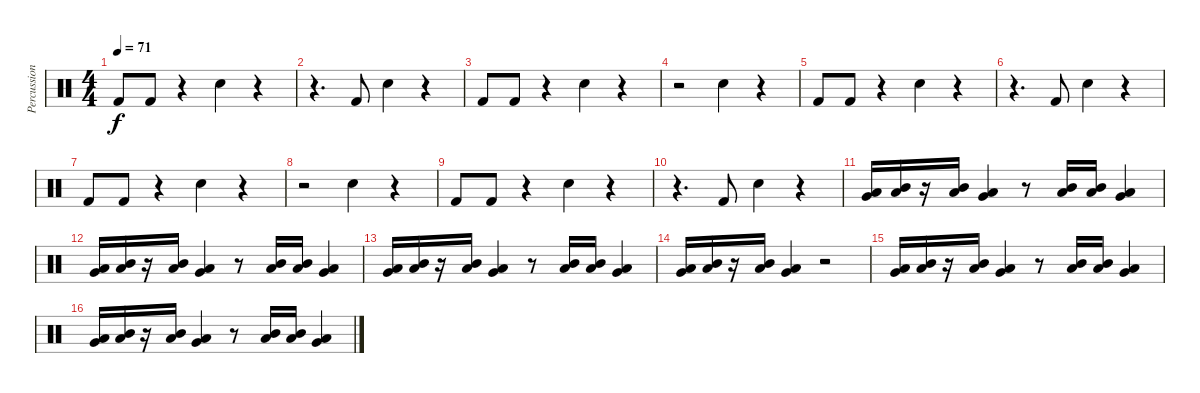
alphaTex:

\track ("Percussion" "Percussion") {instrument percussion}
\staff {score}
\articulation defaults
\ts (4 4)
\tempo 71
\clef neutral
\ks c "Kick (hit) 2".8{dy f} "Kick (hit) 2".8
r.4 "Snare (hit) 2".4 r.4 |
r.4{d} "Kick (hit) 2".8 "Snare (hit) 2".4 r.4 |
"Kick (hit) 2".8 "Kick (hit) 2".8 r.4 "Snare (hit) 2".4 r.4 |
r.2 "Snare (hit) 2".4 r.4 |
"Kick (hit) 2".8 "Kick (hit) 2".8 r.4 "Snare (hit) 2".4 r.4 |
r.4{d} "Kick (hit) 2".8 "Snare (hit) 2".4 r.4 |
"Kick (hit) 2".8 "Kick (hit) 2".8 r.4 "Snare (hit) 2".4 r.4 |
r.2 "Snare (hit) 2".4 r.4 |
"Kick (hit) 2".8 "Kick (hit) 2".8 r.4 "Snare (hit) 2".4 r.4 |
r.4{d} "Kick (hit) 2".8 "Snare (hit) 2".4 r.4 |
("Very Low Tom (hit)" "Low Floor Tom (hit)").16 ("Mid Tom (hit)" "Low Tom (hit)").16 r.16 ("Mid Tom (hit)" "Low Tom (hit)").16 ("Very Low Tom (hit)" "Low Floor Tom (hit)").4 r.8 ("Mid Tom (hit)" "Low Tom (hit)").16 ("Mid Tom (hit)" "Low Tom (hit)").16 ("Very Low Tom (hit)" "Low Floor Tom (hit)").4 |
("Very Low Tom (hit)" "Low Floor Tom (hit)").16 ("Mid Tom (hit)" "Low Tom (hit)").16 r.16 ("Mid Tom (hit)" "Low Tom (hit)").16 ("Very Low Tom (hit)" "Low Floor Tom (hit)").4 r.8 ("Mid Tom (hit)" "Low Tom (hit)").16 ("Mid Tom (hit)" "Low Tom (hit)").16 ("Very Low Tom (hit)" "Low Floor Tom (hit)").4 |
("Very Low Tom (hit)" "Low Floor Tom (hit)").16 ("Mid Tom (hit)" "Low Tom (hit)").16 r.16 ("Mid Tom (hit)" "Low Tom (hit)").16 ("Very Low Tom (hit)" "Low Floor Tom (hit)").4 r.8 ("Mid Tom (hit)" "Low Tom (hit)").16 ("Mid Tom (hit)" "Low Tom (hit)").16 ("Very Low Tom (hit)" "Low Floor Tom (hit)").4 |
("Very Low Tom (hit)" "Low Floor Tom (hit)").16 ("Mid Tom (hit)" "Low Tom (hit)").16 r.16 ("Mid Tom (hit)" "Low Tom (hit)").16 ("Very Low Tom (hit)" "Low Floor Tom (hit)").4 r.2 |
("Very Low Tom (hit)" "Low Floor Tom (hit)").16 ("Mid Tom (hit)" "Low Tom (hit)").16 r.16 ("Mid Tom (hit)" "Low Tom (hit)").16 ("Very Low Tom (hit)" "Low Floor Tom (hit)").4 r.8 ("Mid Tom (hit)" "Low Tom (hit)").16 ("Mid Tom (hit)" "Low Tom (hit)").16 ("Very Low Tom (hit)" "Low Floor Tom (hit)").4 |
("Very Low Tom (hit)" "Low Floor Tom (hit)").16 ("Mid Tom (hit)" "Low Tom (hit)").16 r.16 ("Mid Tom (hit)" "Low Tom (hit)").16 ("Very Low Tom (hit)" "Low Floor Tom (hit)").4 r.8 ("Mid Tom (hit)" "Low Tom (hit)").16 ("Mid Tom (hit)" "Low Tom (hit)").16 ("Very Low Tom (hit)" "Low Floor Tom (hit)").4
